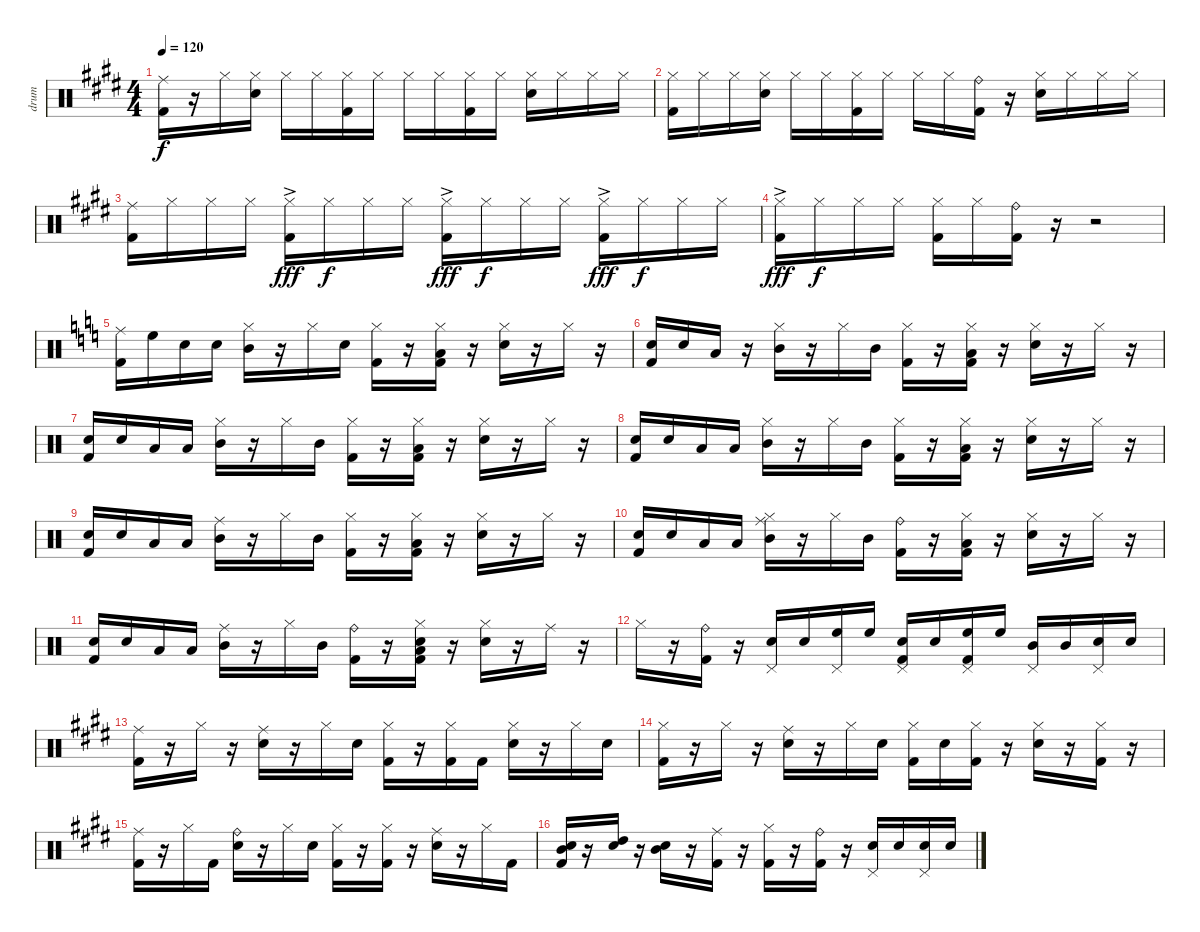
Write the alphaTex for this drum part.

\track ("drum" "drum") {instrument percussion}
\staff {score}
\articulation defaults
\ts (4 4)
\tempo 120
\clef neutral
\ks e
("Kick (hit) 2" "Ride (middle)").16{dy f} r.16 "Hi-Hat (closed)".16 ("Snare (hit) 2" "Hi-Hat (closed)").16 "Hi-Hat (closed)".16 "Hi-Hat (closed)".16 ("Kick (hit) 2" "Hi-Hat (closed)").16 "Hi-Hat (closed)".16 "Hi-Hat (closed)".16 "Hi-Hat (closed)".16 ("Kick (hit) 2" "Hi-Hat (closed)").16 "Hi-Hat (closed)".16 ("Snare (hit) 2" "Hi-Hat (closed)").16 "Hi-Hat (closed)".16 "Hi-Hat (closed)".16 "Hi-Hat (closed)".16 |
("Kick (hit) 2" "Hi-Hat (closed)").16 "Hi-Hat (closed)".16 "Hi-Hat (closed)".16 ("Snare (hit) 2" "Hi-Hat (closed)").16 "Hi-Hat (closed)".16 "Hi-Hat (closed)".16 ("Kick (hit) 2" "Hi-Hat (closed)").16 "Hi-Hat (closed)".16 "Hi-Hat (closed)".16 "Hi-Hat (closed)".16 ("Kick (hit) 2" "Ride (bell)").16 r.16 ("Snare (hit) 2" "Hi-Hat (closed)").16 "Hi-Hat (closed)".16 "Hi-Hat (closed)".16 "Hi-Hat (closed)".16 |
("Kick (hit) 2" "Ride (middle)").16 "Hi-Hat (closed)".16 "Hi-Hat (closed)".16 "Hi-Hat (closed)".16 ("Kick (hit) 2" "Hi-Hat (closed)"{ac}).16{dy fff} "Hi-Hat (closed)".16{dy f} "Hi-Hat (closed)".16 "Hi-Hat (closed)".16 ("Kick (hit) 2" "Hi-Hat (closed)"{ac}).16{dy fff} "Hi-Hat (closed)".16{dy f} "Hi-Hat (closed)".16 "Hi-Hat (closed)".16 ("Kick (hit) 2" "Hi-Hat (closed)"{ac}).16{dy fff} "Hi-Hat (closed)".16{dy f} "Hi-Hat (closed)".16 "Hi-Hat (closed)".16 |
("Kick (hit) 2" "Hi-Hat (closed)"{ac}).16{dy fff} "Hi-Hat (closed)".16{dy f} "Hi-Hat (closed)".16 "Hi-Hat (closed)".16 ("Kick (hit) 2" "Hi-Hat (closed)").16 "Hi-Hat (closed)".16 ("Kick (hit) 2" "Ride (bell)").16 r.16 r.2 |
\ks c
("Kick (hit) 2" "Ride (middle)").16 "High Floor Tom (hit)".16 "Snare (hit) 2".16 "Snare (hit) 2".16 ("Mid Tom (hit)" "Hi-Hat (closed)").16 r.16 "Hi-Hat (closed)".16 "Snare (hit) 2".16 ("Kick (hit) 2" "Hi-Hat (closed)").16 r.16 ("Low Floor Tom (hit)" "Kick (hit) 2" "Hi-Hat (closed)").16 r.16 ("Snare (hit) 2" "Hi-Hat (closed)").16 r.16 "Hi-Hat (closed)".16 r.16 |
("Kick (hit) 2" "Snare (hit) 2").16 "Snare (hit) 2".16 "Low Tom (hit)".16 r.16 ("Mid Tom (hit)" "Hi-Hat (closed)").16 r.16 "Hi-Hat (closed)".16 "Mid Tom (hit)".16 ("Kick (hit) 2" "Hi-Hat (closed)").16 r.16 ("Low Tom (hit)" "Kick (hit) 2" "Hi-Hat (closed)").16 r.16 ("Snare (hit) 2" "Hi-Hat (closed)").16 r.16 "Hi-Hat (closed)".16 r.16 |
("Kick (hit) 2" "Snare (hit) 2").16 "Snare (hit) 2".16 "Low Tom (hit)".16 "Low Tom (hit)".16 ("Mid Tom (hit)" "Hi-Hat (closed)").16 r.16 "Hi-Hat (closed)".16 "Mid Tom (hit)".16 ("Kick (hit) 2" "Hi-Hat (closed)").16 r.16 ("Low Tom (hit)" "Kick (hit) 2" "Hi-Hat (closed)").16 r.16 ("Snare (hit) 2" "Hi-Hat (closed)").16 r.16 "Hi-Hat (closed)".16 r.16 |
("Kick (hit) 2" "Snare (hit) 2").16 "Snare (hit) 2".16 "Low Tom (hit)".16 "Low Tom (hit)".16 ("Mid Tom (hit)" "Hi-Hat (closed)").16 r.16 "Hi-Hat (closed)".16 "Mid Tom (hit)".16 ("Kick (hit) 2" "Hi-Hat (closed)").16 r.16 ("Low Floor Tom (hit)" "Kick (hit) 2" "Hi-Hat (closed)").16 r.16 ("Snare (hit) 2" "Hi-Hat (closed)").16 r.16 "Hi-Hat (closed)".16 r.16 |
("Kick (hit) 2" "Snare (hit) 2").16 "Snare (hit) 2".16 "Low Tom (hit)".16 "Low Tom (hit)".16 ("Mid Tom (hit)" "Ride (middle)").16 r.16 "Hi-Hat (closed)".16 "Mid Tom (hit)".16 ("Kick (hit) 2" "Hi-Hat (closed)").16 r.16 ("Low Tom (hit)" "Kick (hit) 2" "Hi-Hat (closed)").16 r.16 ("Snare (hit) 2" "Hi-Hat (closed)").16 r.16 "Hi-Hat (closed)".16 r.16 |
("Kick (hit) 2" "Snare (hit) 2").16 "Snare (hit) 2".16 "Low Tom (hit)".16 "Low Tom (hit)".16 ("Ride (middle)" "Mid Tom (hit)" "Hi-Hat (closed)").16 r.16 "Hi-Hat (closed)".16 "Mid Tom (hit)".16 ("Kick (hit) 2" "Ride (bell)").16 r.16 ("Low Floor Tom (hit)" "Kick (hit) 2" "Hi-Hat (closed)").16 r.16 ("Snare (hit) 2" "Hi-Hat (closed)").16 r.16 "Hi-Hat (closed)".16 r.16 |
("Kick (hit) 2" "Snare (hit) 2").16 "Snare (hit) 2".16 "Low Tom (hit)".16 "Low Tom (hit)".16 ("Mid Tom (hit)" "Ride (middle)").16 r.16 "Hi-Hat (closed)".16 "Mid Tom (hit)".16 ("Kick (hit) 2" "Ride (bell)").16 r.16 ("Snare (hit) 2" "Kick (hit) 2" "Hi-Hat (closed)" "Low Floor Tom (hit)").16 r.16 ("Snare (hit) 2" "Hi-Hat (closed)").16 r.16 "Ride (middle)".16 r.16 |
"Hi-Hat (closed)".16 r.16 ("Kick (hit) 2" "Ride (bell)").16 r.16 ("Snare (hit) 2" "Pedal Hi-Hat (hit)").16 "Snare (hit) 2".16 ("High Floor Tom (hit)" "Pedal Hi-Hat (hit)").16 "High Floor Tom (hit)".16 ("Kick (hit) 2" "Snare (hit) 2" "Pedal Hi-Hat (hit)").16 "Snare (hit) 2".16 ("Kick (hit) 2" "High Floor Tom (hit)" "Pedal Hi-Hat (hit)").16 "High Floor Tom (hit)".16 ("Mid Tom (hit)" "Pedal Hi-Hat (hit)").16 "Mid Tom (hit)".16 ("Snare (hit) 2" "Pedal Hi-Hat (hit)").16 "Snare (hit) 2".16 |
\ks e
("Kick (hit) 2" "Ride (middle)").16 r.16 "Hi-Hat (closed)".16 r.16 ("Snare (hit) 2" "Ride (middle)").16 r.16 "Hi-Hat (closed)".16 "Snare (hit) 2".16 ("Kick (hit) 2" "Hi-Hat (closed)").16 r.16 ("Kick (hit) 2" "Hi-Hat (closed)").16 "Kick (hit) 2".16 ("Snare (hit) 2" "Hi-Hat (closed)").16 r.16 "Hi-Hat (closed)".16 "Snare (hit) 2".16 |
("Kick (hit) 2" "Hi-Hat (closed)").16 r.16 "Hi-Hat (closed)".16 r.16 ("Snare (hit) 2" "Ride (middle)").16 r.16 "Hi-Hat (closed)".16 "Snare (hit) 2".16 ("Kick (hit) 2" "Hi-Hat (closed)").16 "Snare (hit) 2".16 ("Kick (hit) 2" "Hi-Hat (closed)").16 r.16 ("Snare (hit) 2" "Hi-Hat (closed)").16 r.16 ("Kick (hit) 2" "Hi-Hat (closed)").16 r.16 |
("Kick (hit) 2" "Ride (middle)").16 r.16 "Hi-Hat (closed)".16 "Kick (hit) 2".16 ("Snare (hit) 2" "Ride (bell)").16 r.16 "Hi-Hat (closed)".16 "Snare (hit) 2".16 ("Kick (hit) 2" "Hi-Hat (closed)").16 r.16 ("Kick (hit) 2" "Hi-Hat (closed)").16 r.16 ("Snare (hit) 2" "Ride (middle)").16 r.16 "Hi-Hat (closed)".16 "Kick (hit) 2".16 |
("Kick (hit) 2" "Mid Tom (hit)" "Snare (hit) 2").16 r.16 ("High Tom (hit)" "Snare (hit) 2").16 r.16 ("Snare (hit) 2" "Mid Tom (hit)").16 r.16 ("Kick (hit) 2" "Ride (middle)").16 r.16 ("Kick (hit) 2" "Hi-Hat (closed)").16 r.16 ("Kick (hit) 2" "Ride (bell)").16 r.16 ("Snare (hit) 2" "Pedal Hi-Hat (hit)").16 "Snare (hit) 2".16 ("Snare (hit) 2" "Pedal Hi-Hat (hit)").16 "Snare (hit) 2".16
